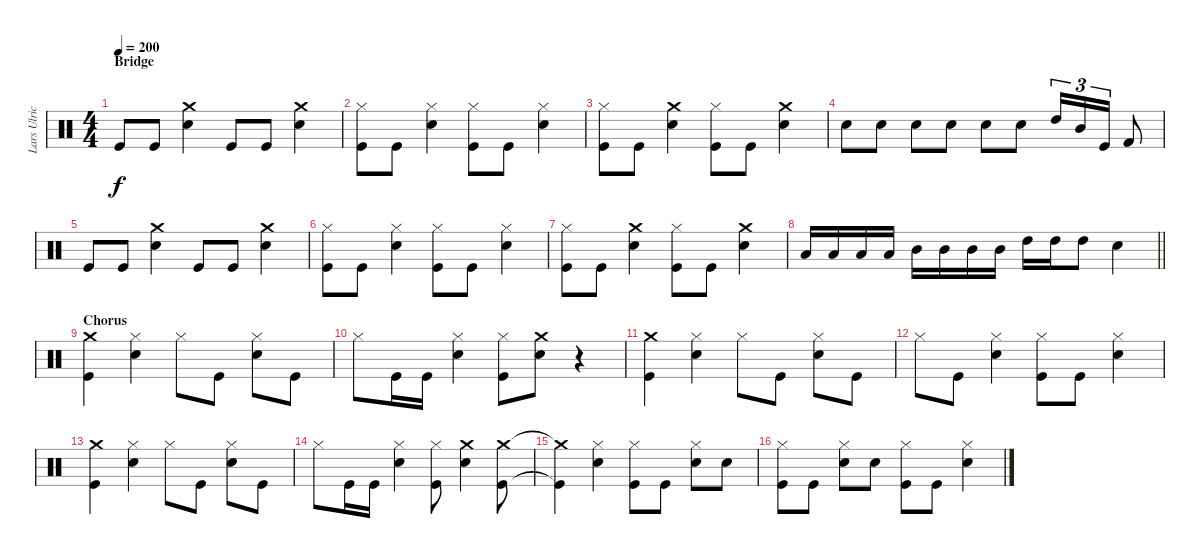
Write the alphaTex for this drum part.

\track ("Lars Ulrich (Drums)" "Lars Ulric") {instrument percussion}
\staff {score}
\articulation defaults
\ts (4 4)
\section ("" "Bridge")
\tempo 200
\clef neutral
\ks c "Kick (hit)".8{dy f} "Kick (hit)".8
("Crash medium (hit)" "Snare (hit) 2").4 "Kick (hit)".8 "Kick (hit)".8 ("Crash medium (hit)" "Snare (hit) 2").4 |
("Kick (hit)" "Hi-Hat (closed)").8 "Kick (hit)".8 ("Snare (hit) 2" "Hi-Hat (closed)").4 ("Kick (hit)" "Hi-Hat (closed)").8 "Kick (hit)".8 ("Snare (hit) 2" "Hi-Hat (closed)").4 |
("Kick (hit)" "Hi-Hat (closed)").8 "Kick (hit)".8 ("Snare (hit) 2" "Crash medium (hit)").4 ("Kick (hit)" "Hi-Hat (closed)").8 "Kick (hit)".8 ("Crash medium (hit)" "Snare (hit) 2").4 |
"Snare (hit) 2".8 "Snare (hit) 2".8 "Snare (hit) 2".8 "Snare (hit) 2".8 "Snare (hit) 2".8 "Snare (hit) 2".8 "High Tom (hit)".16{tu (3 2)} "Mid Tom (hit)".16{tu (3 2)} "Kick (hit)".16{tu (3 2)} "Kick (hit) 2".8 |
"Kick (hit)".8 "Kick (hit)".8 ("Crash medium (hit)" "Snare (hit) 2").4 "Kick (hit)".8 "Kick (hit)".8 ("Crash medium (hit)" "Snare (hit) 2").4 |
("Kick (hit)" "Hi-Hat (closed)").8 "Kick (hit)".8 ("Snare (hit) 2" "Hi-Hat (closed)").4 ("Kick (hit)" "Hi-Hat (closed)").8 "Kick (hit)".8 ("Snare (hit) 2" "Hi-Hat (closed)").4 |
("Kick (hit)" "Hi-Hat (closed)").8 "Kick (hit)".8 ("Snare (hit) 2" "Crash medium (hit)").4 ("Kick (hit)" "Hi-Hat (closed)").8 "Kick (hit)".8 ("Crash medium (hit)" "Snare (hit) 2").4 |
\barLineRight lightlight "Low Tom (hit)".16 "Low Tom (hit)".16 "Low Tom (hit)".16 "Low Tom (hit)".16 "Mid Tom (hit)".16 "Mid Tom (hit)".16 "Mid Tom (hit)".16 "Mid Tom (hit)".16 "High Tom (hit)".16 "High Tom (hit)".16 "High Tom (hit)".8 "Snare (hit) 2".4
|
\section ("" "Chorus")
("Kick (hit)" "Crash medium (hit)").4 ("Hi-Hat (closed)" "Snare (hit) 2").4 "Hi-Hat (closed)".8 "Kick (hit)".8 ("Snare (hit) 2" "Hi-Hat (closed)").8 "Kick (hit)".8 |
"Hi-Hat (closed)".8 "Kick (hit)".16 "Kick (hit)".16 ("Snare (hit) 2" "Hi-Hat (closed)").4 ("Kick (hit)" "Hi-Hat (closed)").8 ("Snare (hit) 2" "Crash medium (hit)").8 r.4 |
("Kick (hit)" "Crash medium (hit)").4 ("Hi-Hat (closed)" "Snare (hit) 2").4 "Hi-Hat (closed)".8 "Kick (hit)".8 ("Snare (hit) 2" "Hi-Hat (closed)").8 "Kick (hit)".8 |
"Hi-Hat (closed)".8 "Kick (hit)".8 ("Snare (hit) 2" "Hi-Hat (closed)").4 ("Hi-Hat (closed)" "Kick (hit)").8 "Kick (hit)".8 ("Snare (hit) 2" "Hi-Hat (closed)").4 |
("Kick (hit)" "Crash medium (hit)").4 ("Hi-Hat (closed)" "Snare (hit) 2").4 "Hi-Hat (closed)".8 "Kick (hit)".8 ("Snare (hit) 2" "Hi-Hat (closed)").8 "Kick (hit)".8 |
"Hi-Hat (closed)".8 "Kick (hit)".16 "Kick (hit)".16 ("Snare (hit) 2" "Hi-Hat (closed)").4 ("Kick (hit)" "Hi-Hat (closed)").8 ("Snare (hit) 2" "Crash medium (hit)").4 ("Kick (hit)" "Crash medium (hit)").8 |
("Kick (hit)"{t} "Crash medium (hit)"{t}).4 ("Hi-Hat (closed)" "Snare (hit) 2").4 ("Kick (hit)" "Hi-Hat (closed)").8 "Kick (hit)".8 ("Hi-Hat (closed)" "Snare (hit) 2").8 "Snare (hit) 2".8 |
("Kick (hit)" "Hi-Hat (closed)").8 "Kick (hit)".8 ("Hi-Hat (closed)" "Snare (hit) 2").8 "Snare (hit) 2".8 ("Kick (hit)" "Hi-Hat (closed)").8 "Kick (hit)".8 ("Snare (hit) 2" "Hi-Hat (closed)").4
